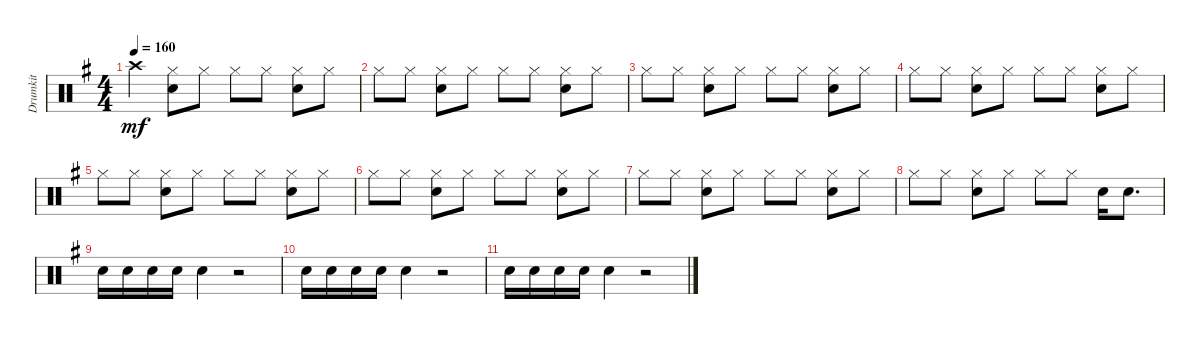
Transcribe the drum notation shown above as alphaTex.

\track ("Drumkit" "Drumkit") {instrument percussion}
\staff {score}
\articulation defaults
\ts (4 4)
\tempo 160
\clef neutral
\ks g "Crash high (hit)".4{dy mf}
("Hi-Hat (closed)" "Snare (hit) 2").8 "Hi-Hat (closed)".8 "Hi-Hat (closed)".8 "Hi-Hat (closed)".8 ("Hi-Hat (closed)" "Snare (hit) 2").8 "Hi-Hat (closed)".8 |
"Hi-Hat (closed)".8 "Hi-Hat (closed)".8 ("Hi-Hat (closed)" "Snare (hit) 2").8 "Hi-Hat (closed)".8 "Hi-Hat (closed)".8 "Hi-Hat (closed)".8 ("Hi-Hat (closed)" "Snare (hit) 2").8 "Hi-Hat (closed)".8 |
"Hi-Hat (closed)".8 "Hi-Hat (closed)".8 ("Hi-Hat (closed)" "Snare (hit) 2").8 "Hi-Hat (closed)".8 "Hi-Hat (closed)".8 "Hi-Hat (closed)".8 ("Hi-Hat (closed)" "Snare (hit) 2").8 "Hi-Hat (closed)".8 |
"Hi-Hat (closed)".8 "Hi-Hat (closed)".8 ("Hi-Hat (closed)" "Snare (hit) 2").8 "Hi-Hat (closed)".8 "Hi-Hat (closed)".8 "Hi-Hat (closed)".8 ("Hi-Hat (closed)" "Snare (hit) 2").8 "Hi-Hat (closed)".8 |
"Hi-Hat (closed)".8 "Hi-Hat (closed)".8 ("Hi-Hat (closed)" "Snare (hit) 2").8 "Hi-Hat (closed)".8 "Hi-Hat (closed)".8 "Hi-Hat (closed)".8 ("Hi-Hat (closed)" "Snare (hit) 2").8 "Hi-Hat (closed)".8 |
"Hi-Hat (closed)".8 "Hi-Hat (closed)".8 ("Hi-Hat (closed)" "Snare (hit) 2").8 "Hi-Hat (closed)".8 "Hi-Hat (closed)".8 "Hi-Hat (closed)".8 ("Hi-Hat (closed)" "Snare (hit) 2").8 "Hi-Hat (closed)".8 |
"Hi-Hat (closed)".8 "Hi-Hat (closed)".8 ("Hi-Hat (closed)" "Snare (hit) 2").8 "Hi-Hat (closed)".8 "Hi-Hat (closed)".8 "Hi-Hat (closed)".8 ("Hi-Hat (closed)" "Snare (hit) 2").8 "Hi-Hat (closed)".8 |
"Hi-Hat (closed)".8 "Hi-Hat (closed)".8 ("Hi-Hat (closed)" "Snare (hit) 2").8 "Hi-Hat (closed)".8 "Hi-Hat (closed)".8 "Hi-Hat (closed)".8 "Snare (hit) 2".16 "Snare (hit) 2".8{d} |
"Snare (hit) 2".16 "Snare (hit) 2".16 "Snare (hit) 2".16 "Snare (hit) 2".16 "Snare (hit) 2".4 r.2 |
"Snare (hit) 2".16 "Snare (hit) 2".16 "Snare (hit) 2".16 "Snare (hit) 2".16 "Snare (hit) 2".4 r.2 |
"Snare (hit) 2".16 "Snare (hit) 2".16 "Snare (hit) 2".16 "Snare (hit) 2".16 "Snare (hit) 2".4 r.2
